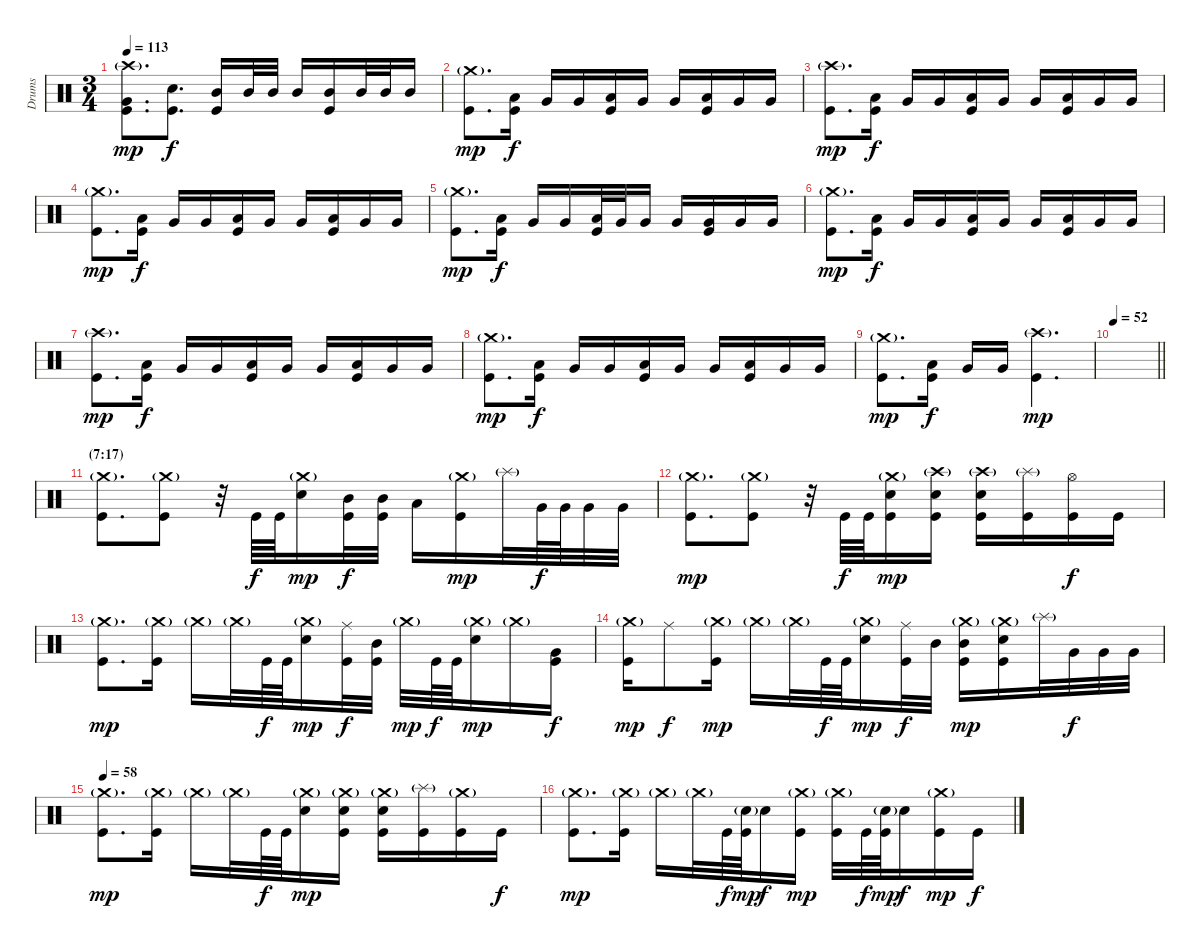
\track ("Drums" "Drums") {instrument percussion}
\staff {score}
\articulation defaults
\ts (3 4)
\tempo 113
\clef neutral
\ks c
("Crash high (hit)"{g} "Very Low Tom (hit)" "Kick (hit)").8{d dy mp} ("Snare (hit) 2" "Kick (hit)").8{d dy f} ("Mid Tom (hit)" "Kick (hit)").16 "Mid Tom (hit)".32 "Mid Tom (hit)".32 "Mid Tom (hit)".16 ("Mid Tom (hit)" "Kick (hit)").16 "Mid Tom (hit)".32 "Mid Tom (hit)".32 "Mid Tom (hit)".16 |
("Crash medium (hit)"{g} "Kick (hit)").8{d dy mp} ("Low Tom (hit)" "Kick (hit)").16{dy f} "Very Low Tom (hit)".16 "Very Low Tom (hit)".16 ("Low Tom (hit)" "Kick (hit)").16 "Very Low Tom (hit)".16 "Very Low Tom (hit)".16 ("Low Tom (hit)" "Kick (hit)").16 "Very Low Tom (hit)".16 "Very Low Tom (hit)".16 |
("Crash high (hit)"{g} "Kick (hit)").8{d dy mp} ("Low Tom (hit)" "Kick (hit)").16{dy f} "Very Low Tom (hit)".16 "Very Low Tom (hit)".16 ("Low Tom (hit)" "Kick (hit)").16 "Very Low Tom (hit)".16 "Very Low Tom (hit)".16 ("Low Tom (hit)" "Kick (hit)").16 "Very Low Tom (hit)".16 "Very Low Tom (hit)".16 |
("Crash medium (hit)"{g} "Kick (hit)").8{d dy mp} ("Low Tom (hit)" "Kick (hit)").16{dy f} "Very Low Tom (hit)".16 "Very Low Tom (hit)".16 ("Low Tom (hit)" "Kick (hit)").16 "Very Low Tom (hit)".16 "Very Low Tom (hit)".16 ("Low Tom (hit)" "Kick (hit)").16 "Very Low Tom (hit)".16 "Very Low Tom (hit)".16 |
("Crash medium (hit)"{g} "Kick (hit)").8{d dy mp} ("Low Tom (hit)" "Kick (hit)").16{dy f} "Very Low Tom (hit)".16 "Very Low Tom (hit)".16 ("Low Tom (hit)" "Kick (hit)").32 "Very Low Tom (hit)".32 "Very Low Tom (hit)".16 "Very Low Tom (hit)".16 ("Very Low Tom (hit)" "Kick (hit)").16 "Very Low Tom (hit)".16 "Very Low Tom (hit)".16 |
("Crash medium (hit)"{g} "Kick (hit)").8{d dy mp} ("Low Tom (hit)" "Kick (hit)").16{dy f} "Very Low Tom (hit)".16 "Very Low Tom (hit)".16 ("Low Tom (hit)" "Kick (hit)").16 "Very Low Tom (hit)".16 "Very Low Tom (hit)".16 ("Low Tom (hit)" "Kick (hit)").16 "Very Low Tom (hit)".16 "Very Low Tom (hit)".16 |
("Crash high (hit)"{g} "Kick (hit)").8{d dy mp} ("Low Tom (hit)" "Kick (hit)").16{dy f} "Very Low Tom (hit)".16 "Very Low Tom (hit)".16 ("Low Tom (hit)" "Kick (hit)").16 "Very Low Tom (hit)".16 "Very Low Tom (hit)".16 ("Low Tom (hit)" "Kick (hit)").16 "Very Low Tom (hit)".16 "Very Low Tom (hit)".16 |
("Crash medium (hit)"{g} "Kick (hit)").8{d dy mp} ("Low Tom (hit)" "Kick (hit)").16{dy f} "Very Low Tom (hit)".16 "Very Low Tom (hit)".16 ("Low Tom (hit)" "Kick (hit)").16 "Very Low Tom (hit)".16 "Very Low Tom (hit)".16 ("Low Tom (hit)" "Kick (hit)").16 "Very Low Tom (hit)".16 "Very Low Tom (hit)".16 |
("Crash medium (hit)"{g} "Kick (hit)").8{d dy mp} ("Low Tom (hit)" "Kick (hit)").16{dy f} "Very Low Tom (hit)".16 "Very Low Tom (hit)".16 ("Crash high (hit)"{g} "Kick (hit)").4{d dy mp} |
\tempo 52
\barLineRight lightlight
|
\section ("" "(7:17)")
("Crash medium (hit)"{g} "Kick (hit)").8{d} ("Crash medium (hit)"{g} "Kick (hit)").8 r.32 "Kick (hit)".64{dy f} "Kick (hit)".64 ("Crash medium (hit)"{g} "Snare (hit) 2").16{dy mp} ("Mid Tom (hit)" "Kick (hit)").32{dy f} ("Mid Tom (hit)" "Kick (hit)").32 "Low Tom (hit)".16 ("Crash medium (hit)"{g} "Kick (hit)").16{dy mp} "Splash (hit)"{g}.32 "Very Low Tom (hit)".64{dy f} "Very Low Tom (hit)".64 "Very Low Tom (hit)".32 "Very Low Tom (hit)".32 |
("Crash medium (hit)"{g} "Kick (hit)").8{d dy mp} ("Crash medium (hit)"{g} "Kick (hit)").8 r.32 "Kick (hit)".64{dy f} "Kick (hit)".64 ("Crash medium (hit)"{g} "Snare (hit) 2" "Kick (hit)").16{dy mp} ("Crash high (hit)"{g} "Snare (hit) 2" "Kick (hit)").16 ("Crash high (hit)"{g} "Snare (hit) 2" "Kick (hit)").16 ("Splash (hit)"{g} "Kick (hit)").16 ("Hi-Hat (open)" "Kick (hit)").16{dy f} "Kick (hit)".16 |
("Crash medium (hit)"{g} "Kick (hit)").8{d dy mp} ("Crash medium (hit)"{g} "Kick (hit)").16 "Crash medium (hit)"{g}.16 "Crash medium (hit)"{g}.32 "Kick (hit)".64{dy f} "Kick (hit)".64 ("Crash medium (hit)"{g} "Snare (hit) 2").16{dy mp} ("Ride (middle)" "Kick (hit)").32{dy f} ("Mid Tom (hit)" "Kick (hit)").32 "Crash medium (hit)"{g}.32{dy mp} "Kick (hit)".64{dy f} "Kick (hit)".64 ("Crash medium (hit)"{g} "Snare (hit) 2").16{dy mp} "Crash medium (hit)"{g}.16 ("Very Low Tom (hit)" "Kick (hit)").16{dy f} |
("Crash medium (hit)"{g} "Kick (hit)").16{dy mp} "Ride (middle)".8{dy f} ("Crash medium (hit)"{g} "Kick (hit)").16{dy mp} "Crash medium (hit)"{g}.16 "Crash medium (hit)"{g}.32 "Kick (hit)".64{dy f} "Kick (hit)".64 ("Crash medium (hit)"{g} "Snare (hit) 2").16{dy mp} ("Ride (middle)" "Kick (hit)").32{dy f} "Mid Tom (hit)".32 ("Crash medium (hit)"{g} "Mid Tom (hit)" "Kick (hit)").16{dy mp} ("Crash medium (hit)"{g} "Snare (hit) 2" "Kick (hit)").16 "Splash (hit)"{g}.32 "Very Low Tom (hit)".32{dy f} "Very Low Tom (hit)".32 "Very Low Tom (hit)".32 |
\tempo 58
("Crash medium (hit)"{g} "Kick (hit)").8{d dy mp} ("Crash medium (hit)"{g} "Kick (hit)").16 "Crash medium (hit)"{g}.16 "Crash medium (hit)"{g}.32 "Kick (hit)".64{dy f} "Kick (hit)".64 ("Crash medium (hit)"{g} "Snare (hit) 2").16{dy mp} ("Crash medium (hit)"{g} "Snare (hit) 2" "Kick (hit)").16 ("Crash medium (hit)"{g} "Snare (hit) 2" "Kick (hit)").16 ("Splash (hit)"{g} "Kick (hit)").16 ("Crash medium (hit)"{g} "Kick (hit)").16 "Kick (hit)".16{dy f} |
("Crash medium (hit)"{g} "Kick (hit)").8{d dy mp} ("Crash medium (hit)"{g} "Kick (hit)").16 "Crash medium (hit)"{g}.16 "Crash medium (hit)"{g}.32 "Kick (hit)".64{dy f} ("Snare (hit) 2"{g} "Kick (hit)").64{dy mp} "Snare (hit) 2".16{dy f} ("Crash medium (hit)"{g} "Kick (hit)").16{dy mp} ("Crash medium (hit)"{g} "Kick (hit)").32 "Kick (hit)".64{dy f} ("Snare (hit) 2"{g} "Kick (hit)").64{dy mp} "Snare (hit) 2".16{dy f} ("Crash medium (hit)"{g} "Kick (hit)").16{dy mp} "Kick (hit)".16{dy f}
